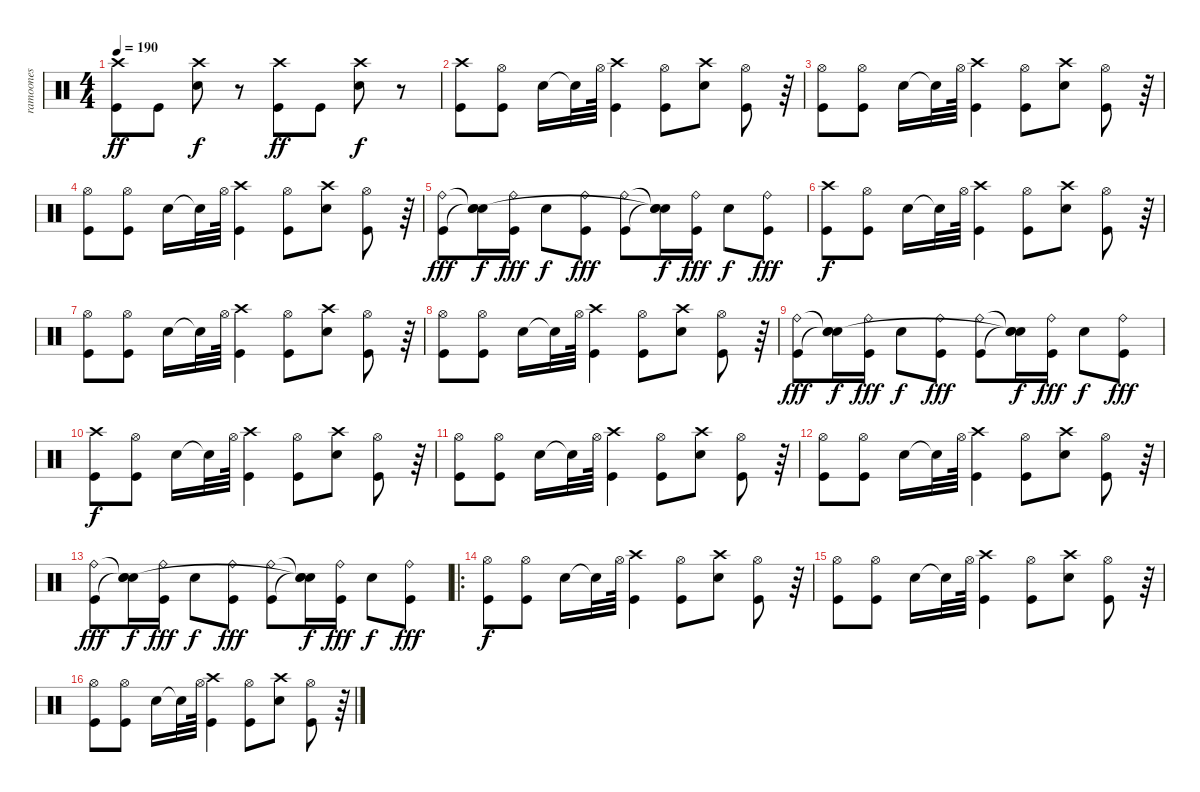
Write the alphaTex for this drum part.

\track ("ramoones" "ramoones") {instrument percussion}
\staff {score}
\articulation defaults
\ts (4 4)
\tempo 190
\clef neutral
\ks c
("Crash high (hit)" "Kick (hit)").8{dy ff} "Kick (hit)".8 ("Crash high (hit)" "Electric Snare (hit)").8{dy f} r.8 ("Crash high (hit)" "Kick (hit)").8{dy ff} "Kick (hit)".8 ("Crash high (hit)" "Electric Snare (hit)").8{dy f} r.8 |
("Crash high (hit)" "Kick (hit)").8 ("Hi-Hat (open)" "Kick (hit)").8 "Electric Snare (hit)".16 "Snare (hit)"{t}.32 "Hi-Hat (open)".64 ("Crash high (hit)" "Kick (hit)").4 ("Hi-Hat (open)" "Kick (hit)").8 ("Crash high (hit)" "Electric Snare (hit)").8 ("Hi-Hat (open)" "Kick (hit)").8 r.64 |
("Hi-Hat (open)" "Kick (hit)").8 ("Hi-Hat (open)" "Kick (hit)").8 "Electric Snare (hit)".16 "Snare (hit)"{t}.32 "Hi-Hat (open)".64 ("Crash high (hit)" "Kick (hit)").4 ("Hi-Hat (open)" "Kick (hit)").8 ("Crash high (hit)" "Electric Snare (hit)").8 ("Hi-Hat (open)" "Kick (hit)").8 r.64 |
("Hi-Hat (open)" "Kick (hit)").8 ("Hi-Hat (open)" "Kick (hit)").8 "Electric Snare (hit)".16 "Snare (hit)"{t}.32 "Hi-Hat (open)".64 ("Crash high (hit)" "Kick (hit)").4 ("Hi-Hat (open)" "Kick (hit)").8 ("Crash high (hit)" "Electric Snare (hit)").8 ("Hi-Hat (open)" "Kick (hit)").8 r.64 |
("Ride (bell)" "Kick (hit)").8{dy fff} ("Snare (hit)"{t} "Snare (hit)"{t} "Snare (hit)").16{dy f} ("Ride (bell)" "Kick (hit)").16{dy fff} "Electric Snare (hit)".8{dy f} ("Ride (bell)" "Kick (hit)").8{dy fff} ("Ride (bell)" "Kick (hit)").8 ("Snare (hit)"{t} "Snare (hit)"{t} "Snare (hit)"{t}).16{dy f} ("Ride (bell)" "Kick (hit)").16{dy fff} "Electric Snare (hit)".8{dy f} ("Ride (bell)" "Kick (hit)").8{dy fff} |
("Crash high (hit)" "Kick (hit)").8{dy f} ("Hi-Hat (open)" "Kick (hit)").8 "Electric Snare (hit)".16 "Snare (hit)"{t}.32 "Hi-Hat (open)".64 ("Crash high (hit)" "Kick (hit)").4 ("Hi-Hat (open)" "Kick (hit)").8 ("Crash high (hit)" "Electric Snare (hit)").8 ("Hi-Hat (open)" "Kick (hit)").8 r.64 |
("Hi-Hat (open)" "Kick (hit)").8 ("Hi-Hat (open)" "Kick (hit)").8 "Electric Snare (hit)".16 "Snare (hit)"{t}.32 "Hi-Hat (open)".64 ("Crash high (hit)" "Kick (hit)").4 ("Hi-Hat (open)" "Kick (hit)").8 ("Crash high (hit)" "Electric Snare (hit)").8 ("Hi-Hat (open)" "Kick (hit)").8 r.64 |
("Hi-Hat (open)" "Kick (hit)").8 ("Hi-Hat (open)" "Kick (hit)").8 "Electric Snare (hit)".16 "Snare (hit)"{t}.32 "Hi-Hat (open)".64 ("Crash high (hit)" "Kick (hit)").4 ("Hi-Hat (open)" "Kick (hit)").8 ("Crash high (hit)" "Electric Snare (hit)").8 ("Hi-Hat (open)" "Kick (hit)").8 r.64 |
("Ride (bell)" "Kick (hit)").8{dy fff} ("Snare (hit)"{t} "Snare (hit)"{t} "Snare (hit)").16{dy f} ("Ride (bell)" "Kick (hit)").16{dy fff} "Electric Snare (hit)".8{dy f} ("Ride (bell)" "Kick (hit)").8{dy fff} ("Ride (bell)" "Kick (hit)").8 ("Snare (hit)"{t} "Snare (hit)"{t} "Snare (hit)"{t}).16{dy f} ("Ride (bell)" "Kick (hit)").16{dy fff} "Electric Snare (hit)".8{dy f} ("Ride (bell)" "Kick (hit)").8{dy fff} |
("Crash high (hit)" "Kick (hit)").8{dy f} ("Hi-Hat (open)" "Kick (hit)").8 "Electric Snare (hit)".16 "Snare (hit)"{t}.32 "Hi-Hat (open)".64 ("Crash high (hit)" "Kick (hit)").4 ("Hi-Hat (open)" "Kick (hit)").8 ("Crash high (hit)" "Electric Snare (hit)").8 ("Hi-Hat (open)" "Kick (hit)").8 r.64 |
("Hi-Hat (open)" "Kick (hit)").8 ("Hi-Hat (open)" "Kick (hit)").8 "Electric Snare (hit)".16 "Snare (hit)"{t}.32 "Hi-Hat (open)".64 ("Crash high (hit)" "Kick (hit)").4 ("Hi-Hat (open)" "Kick (hit)").8 ("Crash high (hit)" "Electric Snare (hit)").8 ("Hi-Hat (open)" "Kick (hit)").8 r.64 |
("Hi-Hat (open)" "Kick (hit)").8 ("Hi-Hat (open)" "Kick (hit)").8 "Electric Snare (hit)".16 "Snare (hit)"{t}.32 "Hi-Hat (open)".64 ("Crash high (hit)" "Kick (hit)").4 ("Hi-Hat (open)" "Kick (hit)").8 ("Crash high (hit)" "Electric Snare (hit)").8 ("Hi-Hat (open)" "Kick (hit)").8 r.64 |
("Ride (bell)" "Kick (hit)").8{dy fff} ("Snare (hit)"{t} "Snare (hit)"{t} "Snare (hit)").16{dy f} ("Ride (bell)" "Kick (hit)").16{dy fff} "Electric Snare (hit)".8{dy f} ("Ride (bell)" "Kick (hit)").8{dy fff} ("Ride (bell)" "Kick (hit)").8 ("Snare (hit)"{t} "Snare (hit)"{t} "Snare (hit)"{t}).16{dy f} ("Ride (bell)" "Kick (hit)").16{dy fff} "Electric Snare (hit)".8{dy f} ("Ride (bell)" "Kick (hit)").8{dy fff} |
\ro
("Hi-Hat (open)" "Kick (hit)").8{dy f} ("Hi-Hat (open)" "Kick (hit)").8 "Electric Snare (hit)".16 "Snare (hit)"{t}.32 "Hi-Hat (open)".64 ("Crash high (hit)" "Kick (hit)").4 ("Hi-Hat (open)" "Kick (hit)").8 ("Crash high (hit)" "Electric Snare (hit)").8 ("Hi-Hat (open)" "Kick (hit)").8 r.64 |
("Hi-Hat (open)" "Kick (hit)").8 ("Hi-Hat (open)" "Kick (hit)").8 "Electric Snare (hit)".16 "Snare (hit)"{t}.32 "Hi-Hat (open)".64 ("Crash high (hit)" "Kick (hit)").4 ("Hi-Hat (open)" "Kick (hit)").8 ("Crash high (hit)" "Electric Snare (hit)").8 ("Hi-Hat (open)" "Kick (hit)").8 r.64 |
("Hi-Hat (open)" "Kick (hit)").8 ("Hi-Hat (open)" "Kick (hit)").8 "Electric Snare (hit)".16 "Snare (hit)"{t}.32 "Hi-Hat (open)".64 ("Crash high (hit)" "Kick (hit)").4 ("Hi-Hat (open)" "Kick (hit)").8 ("Crash high (hit)" "Electric Snare (hit)").8 ("Hi-Hat (open)" "Kick (hit)").8 r.64
